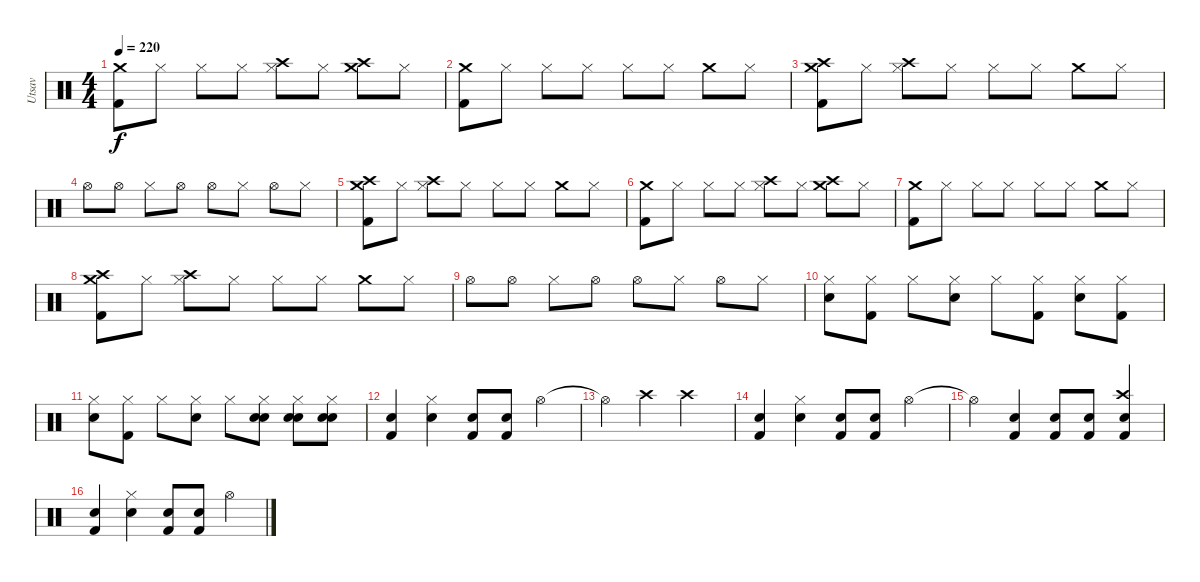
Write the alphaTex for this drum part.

\track ("Utsav" "Utsav") {instrument percussion}
\staff {score}
\articulation defaults
\ts (4 4)
\tempo 220
\clef neutral
\ks c
("Crash medium (hit)" "Kick (hit) 2").8{dy f} "Hi-Hat (closed)".8 "Hi-Hat (closed)".8 "Hi-Hat (closed)".8 ("Hi-Hat (closed)" "Crash high (hit)").8 "Hi-Hat (closed)".8 ("Crash medium (hit)" "Crash high (hit)").8 "Hi-Hat (closed)".8 |
("Crash medium (hit)" "Kick (hit) 2").8 "Hi-Hat (closed)".8 "Hi-Hat (closed)".8 "Hi-Hat (closed)".8 "Hi-Hat (closed)".8 "Hi-Hat (closed)".8 "Crash medium (hit)".8 "Hi-Hat (closed)".8 |
("Crash medium (hit)" "Crash high (hit)" "Kick (hit) 2").8 "Hi-Hat (closed)".8 ("Hi-Hat (closed)" "Crash high (hit)").8 "Hi-Hat (closed)".8 "Hi-Hat (closed)".8 "Hi-Hat (closed)".8 "Crash medium (hit)".8 "Hi-Hat (closed)".8 |
"Hi-Hat (open)".8 "Hi-Hat (open)".8 "Hi-Hat (closed)".8 "Hi-Hat (open)".8 "Hi-Hat (open)".8 "Hi-Hat (closed)".8 "Hi-Hat (open)".8 "Hi-Hat (closed)".8 |
("Crash medium (hit)" "Crash high (hit)" "Kick (hit) 2").8 "Hi-Hat (closed)".8 ("Hi-Hat (closed)" "Crash high (hit)").8 "Hi-Hat (closed)".8 "Hi-Hat (closed)".8 "Hi-Hat (closed)".8 "Crash medium (hit)".8 "Hi-Hat (closed)".8 |
("Crash medium (hit)" "Kick (hit) 2").8 "Hi-Hat (closed)".8 "Hi-Hat (closed)".8 "Hi-Hat (closed)".8 ("Hi-Hat (closed)" "Crash high (hit)").8 "Hi-Hat (closed)".8 ("Crash medium (hit)" "Crash high (hit)").8 "Hi-Hat (closed)".8 |
("Crash medium (hit)" "Kick (hit) 2").8 "Hi-Hat (closed)".8 "Hi-Hat (closed)".8 "Hi-Hat (closed)".8 "Hi-Hat (closed)".8 "Hi-Hat (closed)".8 "Crash medium (hit)".8 "Hi-Hat (closed)".8 |
("Crash medium (hit)" "Crash high (hit)" "Kick (hit) 2").8 "Hi-Hat (closed)".8 ("Hi-Hat (closed)" "Crash high (hit)").8 "Hi-Hat (closed)".8 "Hi-Hat (closed)".8 "Hi-Hat (closed)".8 "Crash medium (hit)".8 "Hi-Hat (closed)".8 |
"Hi-Hat (open)".8 "Hi-Hat (open)".8 "Hi-Hat (closed)".8 "Hi-Hat (open)".8 "Hi-Hat (open)".8 "Hi-Hat (closed)".8 "Hi-Hat (open)".8 "Hi-Hat (closed)".8 |
("Hi-Hat (closed)" "Snare (hit) 2").8 ("Hi-Hat (closed)" "Kick (hit) 2").8 "Hi-Hat (closed)".8 ("Hi-Hat (closed)" "Snare (hit) 2").8 "Hi-Hat (closed)".8 ("Hi-Hat (closed)" "Kick (hit) 2").8 ("Hi-Hat (closed)" "Snare (hit) 2").8 ("Hi-Hat (closed)" "Kick (hit) 2").8 |
("Hi-Hat (closed)" "Snare (hit) 2").8 ("Hi-Hat (closed)" "Kick (hit) 2").8 "Hi-Hat (closed)".8 ("Hi-Hat (closed)" "Snare (hit) 2").8 "Hi-Hat (closed)".8 ("Hi-Hat (closed)" "Snare (hit) 2" "Snare (hit) 2").8 ("Hi-Hat (closed)" "Snare (hit) 2" "Snare (hit) 2").8 ("Hi-Hat (closed)" "Snare (hit) 2" "Snare (hit) 2").8 |
("Electric Snare (hit)" "Kick (hit) 2").4 ("Hi-Hat (closed)" "Snare (hit) 2").4 ("Electric Snare (hit)" "Kick (hit) 2").8 ("Electric Snare (hit)" "Kick (hit) 2").8 "Hi-Hat (open)".4 |
"Hi-Hat (open)"{t}.4 "Crash high (hit)".4 "Crash high (hit)".2 |
("Electric Snare (hit)" "Kick (hit) 2").4 ("Hi-Hat (closed)" "Snare (hit) 2").4 ("Electric Snare (hit)" "Kick (hit) 2").8 ("Electric Snare (hit)" "Kick (hit) 2").8 "Hi-Hat (open)".4 |
"Hi-Hat (open)"{t}.4 ("Snare (hit) 2" "Kick (hit) 2").4 ("Snare (hit) 2" "Kick (hit) 2").8 ("Snare (hit) 2" "Kick (hit) 2").8 ("Crash high (hit)" "Snare (hit) 2" "Kick (hit) 2").4 |
("Electric Snare (hit)" "Kick (hit) 2").4 ("Hi-Hat (closed)" "Snare (hit) 2").4 ("Electric Snare (hit)" "Kick (hit) 2").8 ("Electric Snare (hit)" "Kick (hit) 2").8 "Hi-Hat (open)".4
